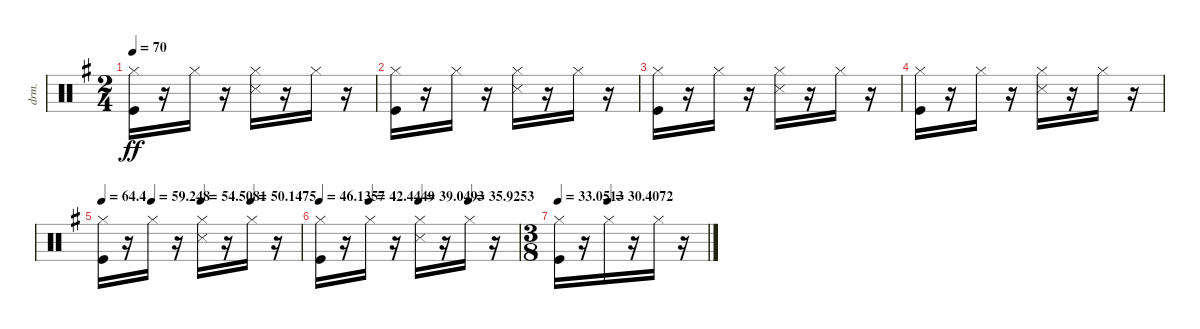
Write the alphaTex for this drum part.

\bracketExtendMode nobrackets
\track ("Track10" "drm.") {instrument percussion}
\staff {score}
\articulation defaults
\ts (2 4)
\tempo 70
\clef neutral
\ks eminor
("Kick (hit)"{acc forcenatural} "Hi-Hat (closed)"{acc #}).16{dy ff} r.16 "Hi-Hat (closed)"{acc #}.16 r.16 ("Snare (side stick) 3"{acc #} "Hi-Hat (closed)"{acc #}).16 r.16 "Hi-Hat (closed)"{acc #}.16 r.16 |
("Kick (hit)"{acc forcenatural} "Hi-Hat (closed)"{acc #}).16 r.16 "Hi-Hat (closed)"{acc #}.16 r.16 ("Snare (side stick) 3"{acc #} "Hi-Hat (closed)"{acc #}).16 r.16 "Hi-Hat (closed)"{acc #}.16 r.16 |
("Kick (hit)"{acc forcenatural} "Hi-Hat (closed)"{acc #}).16 r.16 "Hi-Hat (closed)"{acc #}.16 r.16 ("Snare (side stick) 3"{acc #} "Hi-Hat (closed)"{acc #}).16 r.16 "Hi-Hat (closed)"{acc #}.16 r.16 |
("Kick (hit)"{acc forcenatural} "Hi-Hat (closed)"{acc #}).16 r.16 "Hi-Hat (closed)"{acc #}.16 r.16 ("Snare (side stick) 3"{acc #} "Hi-Hat (closed)"{acc #}).16 r.16 "Hi-Hat (closed)"{acc #}.16 r.16 |
\tempo
64.4
\tempo (59.248 0.25)
\tempo (54.5081 0.5)
\tempo (50.1475 0.75)
("Kick (hit)"{acc forcenatural} "Hi-Hat (closed)"{acc #}).16 r.16 "Hi-Hat (closed)"{acc #}.16 r.16 ("Snare (side stick) 3"{acc #} "Hi-Hat (closed)"{acc #}).16 r.16 "Hi-Hat (closed)"{acc #}.16 r.16 |
\tempo
46.1357
\tempo (42.4449 0.25)
\tempo (39.0493 0.5)
\tempo (35.9253 0.75)
("Kick (hit)"{acc forcenatural} "Hi-Hat (closed)"{acc #}).16 r.16 "Hi-Hat (closed)"{acc #}.16 r.16 ("Snare (side stick) 3"{acc #} "Hi-Hat (closed)"{acc #}).16 r.16 "Hi-Hat (closed)"{acc #}.16 r.16 |
\ts (3 8)
\tempo
33.0513
\tempo (30.4072 0.333333)
("Kick (hit)"{acc forcenatural} "Hi-Hat (closed)"{acc #}).16 r.16 "Hi-Hat (closed)"{acc #}.16 r.16 "Hi-Hat (closed)"{acc #}.16 r.16
